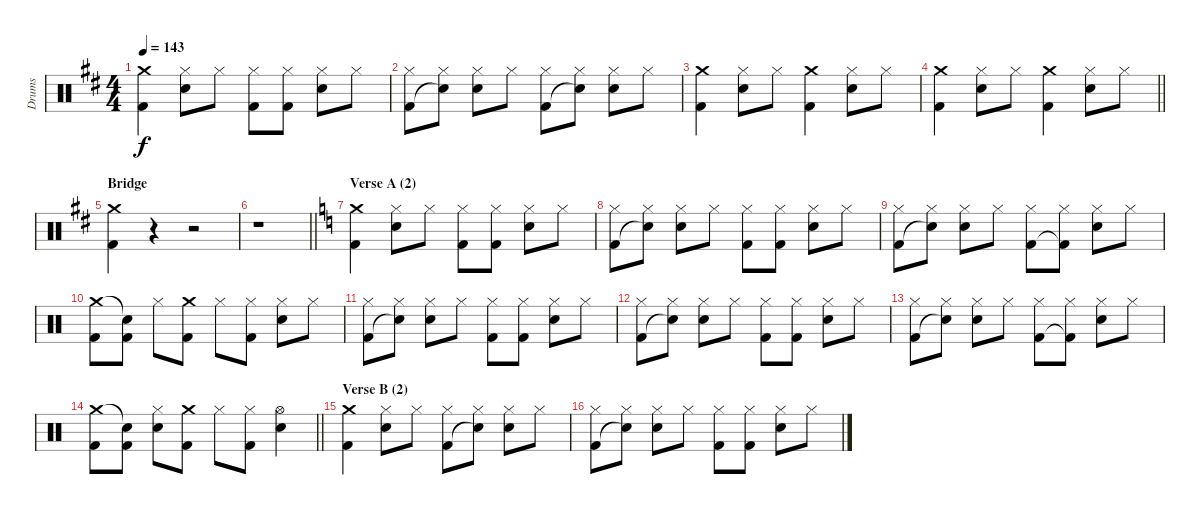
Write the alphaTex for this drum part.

\track ("Drums" "Drums") {instrument percussion}
\staff {score}
\articulation defaults
\ts (4 4)
\tempo 143
\clef neutral
\ks d
("Crash medium (hit)" "Kick (hit) 2").4{dy f} ("Hi-Hat (closed)" "Electric Snare (hit)").8 "Hi-Hat (closed)".8 ("Hi-Hat (closed)" "Kick (hit) 2").8 ("Hi-Hat (closed)" "Kick (hit) 2").8 ("Hi-Hat (closed)" "Electric Snare (hit)").8 "Hi-Hat (closed)".8 |
("Hi-Hat (closed)" "Kick (hit) 2").8 ("Hi-Hat (closed)" "Snare (hit)"{t}).8 ("Hi-Hat (closed)" "Electric Snare (hit)").8 "Hi-Hat (closed)".8 ("Hi-Hat (closed)" "Kick (hit) 2").8 ("Hi-Hat (closed)" "Snare (hit)"{t}).8 ("Hi-Hat (closed)" "Electric Snare (hit)").8 "Hi-Hat (closed)".8 |
("Crash medium (hit)" "Kick (hit) 2").4 ("Hi-Hat (closed)" "Electric Snare (hit)").8 "Hi-Hat (closed)".8 ("Crash medium (hit)" "Kick (hit) 2").4 ("Hi-Hat (closed)" "Electric Snare (hit)").8 "Hi-Hat (closed)".8 |
\barLineRight lightlight
("Crash medium (hit)" "Kick (hit) 2").4 ("Hi-Hat (closed)" "Electric Snare (hit)").8 "Hi-Hat (closed)".8 ("Crash medium (hit)" "Kick (hit) 2").4 ("Hi-Hat (closed)" "Electric Snare (hit)").8 "Hi-Hat (closed)".8 |
\section ("" "Bridge")
("Crash medium (hit)" "Kick (hit) 2").4 r.4 r.2 |
\barLineRight lightlight
r.1 |
\section ("" "Verse A (2)")
\ks aminor
("Crash medium (hit)" "Kick (hit) 2").4 ("Hi-Hat (closed)" "Electric Snare (hit)").8 "Hi-Hat (closed)".8 ("Hi-Hat (closed)" "Kick (hit) 2").8 ("Hi-Hat (closed)" "Kick (hit) 2").8 ("Hi-Hat (closed)" "Electric Snare (hit)").8 "Hi-Hat (closed)".8 |
("Hi-Hat (closed)" "Kick (hit) 2").8 ("Hi-Hat (closed)" "Snare (hit)"{t}).8 ("Hi-Hat (closed)" "Electric Snare (hit)").8 "Hi-Hat (closed)".8 ("Hi-Hat (closed)" "Kick (hit) 2").8 ("Hi-Hat (closed)" "Kick (hit) 2").8 ("Hi-Hat (closed)" "Electric Snare (hit)").8 "Hi-Hat (closed)".8 |
("Hi-Hat (closed)" "Kick (hit) 2").8 ("Hi-Hat (closed)" "Snare (hit)"{t}).8 ("Hi-Hat (closed)" "Electric Snare (hit)").8 "Hi-Hat (closed)".8 ("Hi-Hat (closed)" "Kick (hit) 2").8 ("Hi-Hat (closed)" "Kick (hit) 2"{t}).8 ("Hi-Hat (closed)" "Electric Snare (hit)").8 "Hi-Hat (closed)".8 |
("Crash medium (hit)" "Kick (hit) 2").8 ("Snare (hit)"{t} "Kick (hit) 2").8 "Hi-Hat (closed)".8 ("Crash medium (hit)" "Kick (hit) 2").8 "Hi-Hat (closed)".8 ("Hi-Hat (closed)" "Kick (hit) 2").8 ("Hi-Hat (closed)" "Electric Snare (hit)").8 "Hi-Hat (closed)".8 |
("Hi-Hat (closed)" "Kick (hit) 2").8 ("Hi-Hat (closed)" "Snare (hit)"{t}).8 ("Hi-Hat (closed)" "Electric Snare (hit)").8 "Hi-Hat (closed)".8 ("Hi-Hat (closed)" "Kick (hit) 2").8 ("Hi-Hat (closed)" "Kick (hit) 2").8 ("Hi-Hat (closed)" "Electric Snare (hit)").8 "Hi-Hat (closed)".8 |
("Hi-Hat (closed)" "Kick (hit) 2").8 ("Hi-Hat (closed)" "Snare (hit)"{t}).8 ("Hi-Hat (closed)" "Electric Snare (hit)").8 "Hi-Hat (closed)".8 ("Hi-Hat (closed)" "Kick (hit) 2").8 ("Hi-Hat (closed)" "Kick (hit) 2").8 ("Hi-Hat (closed)" "Electric Snare (hit)").8 "Hi-Hat (closed)".8 |
("Hi-Hat (closed)" "Kick (hit) 2").8 ("Hi-Hat (closed)" "Snare (hit)"{t}).8 ("Hi-Hat (closed)" "Electric Snare (hit)").8 "Hi-Hat (closed)".8 ("Hi-Hat (closed)" "Kick (hit) 2").8 ("Hi-Hat (closed)" "Kick (hit) 2"{t}).8 ("Hi-Hat (closed)" "Electric Snare (hit)").8 "Hi-Hat (closed)".8 |
\barLineRight lightlight
("Crash medium (hit)" "Kick (hit) 2").8 ("Snare (hit)"{t} "Kick (hit) 2").8 ("Hi-Hat (closed)" "Electric Snare (hit)").8 ("Crash medium (hit)" "Kick (hit) 2").8 "Hi-Hat (closed)".8 ("Hi-Hat (closed)" "Kick (hit) 2").8 ("Hi-Hat (open)" "Electric Snare (hit)").4 |
\section ("" "Verse B (2)")
("Crash medium (hit)" "Kick (hit) 2").4 ("Hi-Hat (closed)" "Electric Snare (hit)").8 "Hi-Hat (closed)".8 ("Hi-Hat (closed)" "Kick (hit) 2").8 ("Hi-Hat (closed)" "Snare (hit)"{t}).8 ("Hi-Hat (closed)" "Electric Snare (hit)").8 "Hi-Hat (closed)".8 |
("Hi-Hat (closed)" "Kick (hit) 2").8 ("Hi-Hat (closed)" "Snare (hit)"{t}).8 ("Hi-Hat (closed)" "Electric Snare (hit)").8 "Hi-Hat (closed)".8 ("Hi-Hat (closed)" "Kick (hit) 2").8 ("Hi-Hat (closed)" "Kick (hit) 2").8 ("Hi-Hat (closed)" "Electric Snare (hit)").8 "Hi-Hat (closed)".8
